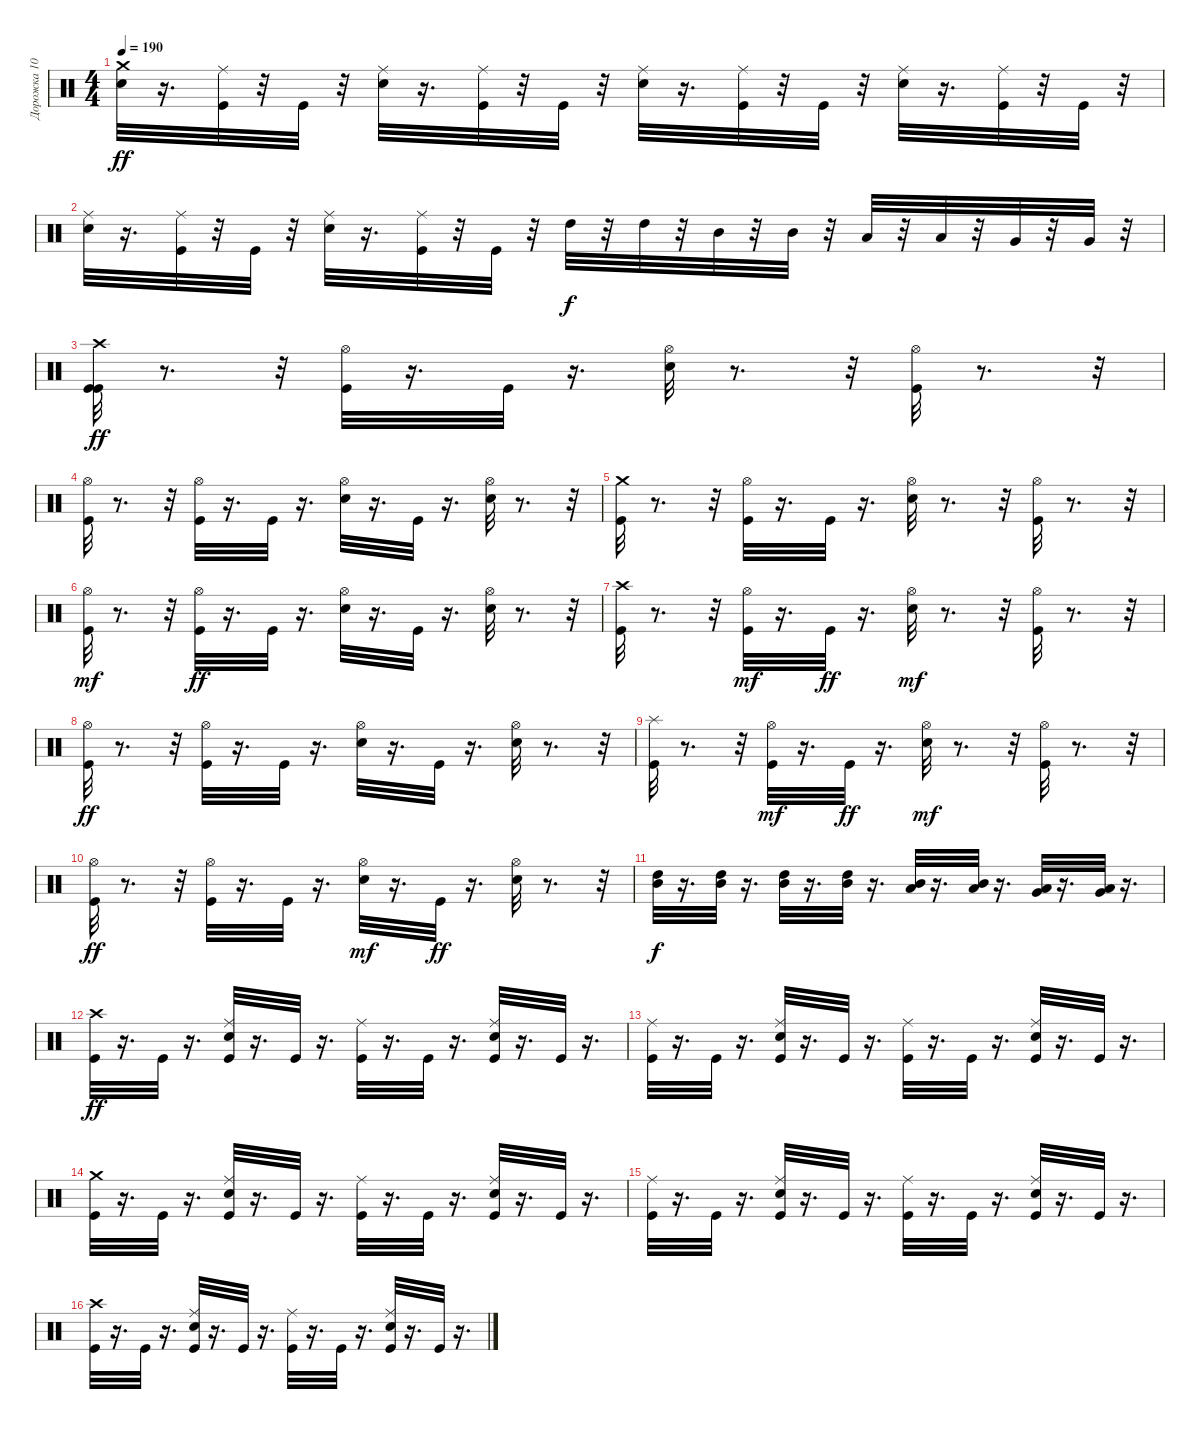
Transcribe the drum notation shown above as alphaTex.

\track ("Дорожка 10" "Дорожка 10") {instrument percussion}
\staff {score}
\articulation defaults
\ts (4 4)
\tempo 190
\clef neutral
\ks c
("Crash medium (hit)" "Snare (hit) 2").32{dy ff} r.16{d} ("Ride (middle)" "Kick (hit)").32 r.32 "Kick (hit)".32 r.32 ("Ride (middle)" "Snare (hit) 2").32 r.16{d} ("Ride (middle)" "Kick (hit)").32 r.32 "Kick (hit)".32 r.32 ("Ride (middle)" "Snare (hit) 2").32 r.16{d} ("Ride (middle)" "Kick (hit)").32 r.32 "Kick (hit)".32 r.32 ("Ride (middle)" "Snare (hit) 2").32 r.16{d} ("Ride (middle)" "Kick (hit)").32 r.32 "Kick (hit)".32 r.32 |
("Ride (middle)" "Snare (hit) 2").32 r.16{d} ("Ride (middle)" "Kick (hit)").32 r.32 "Kick (hit)".32 r.32 ("Ride (middle)" "Snare (hit) 2").32 r.16{d} ("Ride (middle)" "Kick (hit)").32 r.32 "Kick (hit)".32 r.32 "High Tom (hit)".32{dy f} r.32 "High Tom (hit)".32 r.32 "Mid Tom (hit)".32 r.32 "Mid Tom (hit)".32 r.32 "Low Tom (hit)".32 r.32 "Low Tom (hit)".32 r.32 "Very Low Tom (hit)".32 r.32 "Very Low Tom (hit)".32 r.32 |
("Kick (hit)" "Crash high (hit)" "Kick (hit)").32{dy ff} r.8{d} r.32 ("Hi-Hat (open)" "Kick (hit)").32 r.16{d} "Kick (hit)".32 r.16{d} ("Hi-Hat (open)" "Snare (hit) 2").32 r.8{d} r.32 ("Hi-Hat (open)" "Kick (hit)").32 r.8{d} r.32 |
("Hi-Hat (open)" "Kick (hit)").32 r.8{d} r.32 ("Hi-Hat (open)" "Kick (hit)").32 r.16{d} "Kick (hit)".32 r.16{d} ("Hi-Hat (open)" "Snare (hit) 2").32 r.16{d} "Kick (hit)".32 r.16{d} ("Hi-Hat (open)" "Snare (hit) 2").32 r.8{d} r.32 |
("Kick (hit)" "Crash medium (hit)").32 r.8{d} r.32 ("Hi-Hat (open)" "Kick (hit)").32 r.16{d} "Kick (hit)".32 r.16{d} ("Hi-Hat (open)" "Snare (hit) 2").32 r.8{d} r.32 ("Hi-Hat (open)" "Kick (hit)").32 r.8{d} r.32 |
("Kick (hit)" "Hi-Hat (open)").32{dy mf} r.8{d} r.32 ("Hi-Hat (open)" "Kick (hit)").32{dy ff} r.16{d} "Kick (hit)".32 r.16{d} ("Hi-Hat (open)" "Snare (hit) 2").32 r.16{d} "Kick (hit)".32 r.16{d} ("Hi-Hat (open)" "Snare (hit) 2").32 r.8{d} r.32 |
("Crash high (hit)" "Kick (hit)").32 r.8{d} r.32 ("Kick (hit)" "Hi-Hat (open)").32{dy mf} r.16{d} "Kick (hit)".32{dy ff} r.16{d} ("Snare (hit) 2" "Hi-Hat (open)").32{dy mf} r.8{d} r.32 ("Kick (hit)" "Hi-Hat (open)").32 r.8{d} r.32 |
("Hi-Hat (open)" "Kick (hit)").32{dy ff} r.8{d} r.32 ("Hi-Hat (open)" "Kick (hit)").32 r.16{d} "Kick (hit)".32 r.16{d} ("Hi-Hat (open)" "Snare (hit) 2").32 r.16{d} "Kick (hit)".32 r.16{d} ("Hi-Hat (open)" "Snare (hit) 2").32 r.8{d} r.32 |
("Splash (hit)" "Kick (hit)").32 r.8{d} r.32 ("Kick (hit)" "Hi-Hat (open)").32{dy mf} r.16{d} "Kick (hit)".32{dy ff} r.16{d} ("Snare (hit) 2" "Hi-Hat (open)").32{dy mf} r.8{d} r.32 ("Kick (hit)" "Hi-Hat (open)").32 r.8{d} r.32 |
("Hi-Hat (open)" "Kick (hit)").32{dy ff} r.8{d} r.32 ("Hi-Hat (open)" "Kick (hit)").32 r.16{d} "Kick (hit)".32 r.16{d} ("Snare (hit) 2" "Hi-Hat (open)").32{dy mf} r.16{d} "Kick (hit)".32{dy ff} r.16{d} ("Hi-Hat (open)" "Snare (hit) 2").32 r.8{d} r.32 |
("Mid Tom (hit)" "High Tom (hit)").32{dy f} r.16{d} ("Mid Tom (hit)" "High Tom (hit)").32 r.16{d} ("Mid Tom (hit)" "High Tom (hit)").32 r.16{d} ("Mid Tom (hit)" "High Tom (hit)").32 r.16{d} ("Low Tom (hit)" "Mid Tom (hit)").32 r.16{d} ("Low Tom (hit)" "Mid Tom (hit)").32 r.16{d} ("Very Low Tom (hit)" "Low Tom (hit)").32 r.16{d} ("Very Low Tom (hit)" "Low Tom (hit)").32 r.16{d} |
("Crash high (hit)" "Kick (hit)").32{dy ff} r.16{d} "Kick (hit)".32 r.16{d} ("Kick (hit)" "Snare (hit) 2" "Ride (middle)").32 r.16{d} "Kick (hit)".32 r.16{d} ("Ride (middle)" "Kick (hit)").32 r.16{d} "Kick (hit)".32 r.16{d} ("Ride (middle)" "Kick (hit)" "Snare (hit) 2").32 r.16{d} "Kick (hit)".32 r.16{d} |
("Ride (middle)" "Kick (hit)").32 r.16{d} "Kick (hit)".32 r.16{d} ("Ride (middle)" "Kick (hit)" "Snare (hit) 2").32 r.16{d} "Kick (hit)".32 r.16{d} ("Ride (middle)" "Kick (hit)").32 r.16{d} "Kick (hit)".32 r.16{d} ("Ride (middle)" "Kick (hit)" "Snare (hit) 2").32 r.16{d} "Kick (hit)".32 r.16{d} |
("Kick (hit)" "Crash medium (hit)").32 r.16{d} "Kick (hit)".32 r.16{d} ("Snare (hit) 2" "Kick (hit)" "Ride (middle)").32 r.16{d} "Kick (hit)".32 r.16{d} ("Kick (hit)" "Ride (middle)").32 r.16{d} "Kick (hit)".32 r.16{d} ("Snare (hit) 2" "Kick (hit)" "Ride (middle)").32 r.16{d} "Kick (hit)".32 r.16{d} |
("Kick (hit)" "Ride (middle)").32 r.16{d} "Kick (hit)".32 r.16{d} ("Snare (hit) 2" "Kick (hit)" "Ride (middle)").32 r.16{d} "Kick (hit)".32 r.16{d} ("Kick (hit)" "Ride (middle)").32 r.16{d} "Kick (hit)".32 r.16{d} ("Snare (hit) 2" "Kick (hit)" "Ride (middle)").32 r.16{d} "Kick (hit)".32 r.16{d} |
("Crash high (hit)" "Kick (hit)").32 r.16{d} "Kick (hit)".32 r.16{d} ("Kick (hit)" "Snare (hit) 2" "Ride (middle)").32 r.16{d} "Kick (hit)".32 r.16{d} ("Ride (middle)" "Kick (hit)").32 r.16{d} "Kick (hit)".32 r.16{d} ("Ride (middle)" "Kick (hit)" "Snare (hit) 2").32 r.16{d} "Kick (hit)".32 r.16{d}
